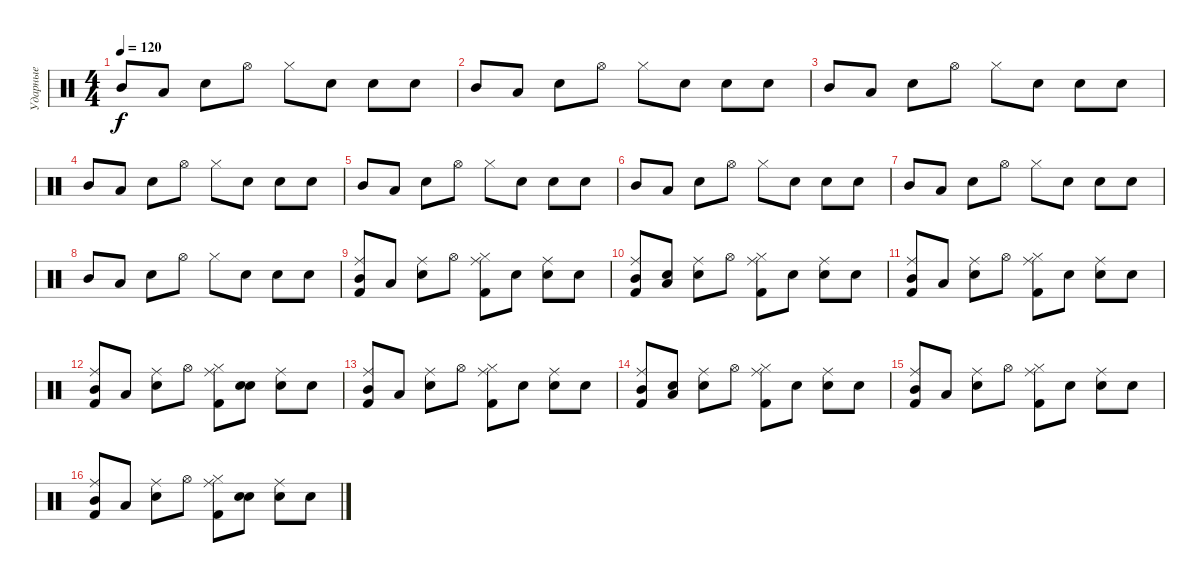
\track ("Ударные" "Ударные") {instrument percussion}
\staff {score}
\articulation defaults
\ts (4 4)
\tempo 120
\clef neutral
\ks c "Mid Tom (hit)".8{dy f} "Low Tom (hit)".8 "Electric Snare (hit)".8 "Hi-Hat (open)".8 "Hi-Hat (closed)".8 "Snare (hit)".8 "Electric Snare (hit)".8 "Snare (hit)".8
|
"Mid Tom (hit)".8 "Low Tom (hit)".8 "Electric Snare (hit)".8 "Hi-Hat (open)".8 "Hi-Hat (closed)".8 "Snare (hit)".8 "Electric Snare (hit)".8 "Snare (hit)".8 |
"Mid Tom (hit)".8 "Low Tom (hit)".8 "Electric Snare (hit)".8 "Hi-Hat (open)".8 "Hi-Hat (closed)".8 "Snare (hit)".8 "Electric Snare (hit)".8 "Snare (hit)".8 |
"Mid Tom (hit)".8 "Low Tom (hit)".8 "Electric Snare (hit)".8 "Hi-Hat (open)".8 "Hi-Hat (closed)".8 "Snare (hit)".8 "Electric Snare (hit)".8 "Snare (hit)".8 |
"Mid Tom (hit)".8 "Low Tom (hit)".8 "Electric Snare (hit)".8 "Hi-Hat (open)".8 "Hi-Hat (closed)".8 "Snare (hit)".8 "Electric Snare (hit)".8 "Snare (hit)".8 |
"Mid Tom (hit)".8 "Low Tom (hit)".8 "Electric Snare (hit)".8 "Hi-Hat (open)".8 "Hi-Hat (closed)".8 "Snare (hit)".8 "Electric Snare (hit)".8 "Snare (hit)".8 |
"Mid Tom (hit)".8 "Low Tom (hit)".8 "Electric Snare (hit)".8 "Hi-Hat (open)".8 "Hi-Hat (closed)".8 "Snare (hit)".8 "Electric Snare (hit)".8 "Snare (hit)".8 |
"Mid Tom (hit)".8 "Low Tom (hit)".8 "Electric Snare (hit)".8 "Hi-Hat (open)".8 "Hi-Hat (closed)".8 "Snare (hit)".8 "Electric Snare (hit)".8 "Snare (hit)".8 |
("Ride (middle)" "Mid Tom (hit)" "Kick (hit) 2").8 "Low Tom (hit)".8 ("Ride (middle)" "Electric Snare (hit)").8 "Hi-Hat (open)".8 ("Ride (middle)" "Hi-Hat (closed)" "Kick (hit) 2").8 "Snare (hit)".8 ("Ride (middle)" "Electric Snare (hit)").8 "Snare (hit)".8 |
("Ride (middle)" "Mid Tom (hit)" "Kick (hit) 2").8 ("Low Tom (hit)" "Snare (hit)").8 ("Ride (middle)" "Electric Snare (hit)").8 "Hi-Hat (open)".8 ("Ride (middle)" "Hi-Hat (closed)" "Kick (hit) 2").8 "Snare (hit)".8 ("Ride (middle)" "Electric Snare (hit)").8 "Snare (hit)".8 |
("Ride (middle)" "Mid Tom (hit)" "Kick (hit) 2").8 "Low Tom (hit)".8 ("Ride (middle)" "Electric Snare (hit)").8 "Hi-Hat (open)".8 ("Ride (middle)" "Hi-Hat (closed)" "Kick (hit) 2").8 "Snare (hit)".8 ("Ride (middle)" "Electric Snare (hit)").8 "Snare (hit)".8 |
("Ride (middle)" "Mid Tom (hit)" "Kick (hit) 2").8 "Low Tom (hit)".8 ("Ride (middle)" "Electric Snare (hit)").8 "Hi-Hat (open)".8 ("Ride (middle)" "Hi-Hat (closed)" "Kick (hit) 2").8 ("Snare (hit)" "Snare (hit)").8 ("Ride (middle)" "Electric Snare (hit)").8 "Snare (hit)".8 |
("Ride (middle)" "Mid Tom (hit)" "Kick (hit) 2").8 "Low Tom (hit)".8 ("Ride (middle)" "Electric Snare (hit)").8 "Hi-Hat (open)".8 ("Ride (middle)" "Hi-Hat (closed)" "Kick (hit) 2").8 "Snare (hit)".8 ("Ride (middle)" "Electric Snare (hit)").8 "Snare (hit)".8 |
("Ride (middle)" "Mid Tom (hit)" "Kick (hit) 2").8 ("Low Tom (hit)" "Snare (hit)").8 ("Ride (middle)" "Electric Snare (hit)").8 "Hi-Hat (open)".8 ("Ride (middle)" "Hi-Hat (closed)" "Kick (hit) 2").8 "Snare (hit)".8 ("Ride (middle)" "Electric Snare (hit)").8 "Snare (hit)".8 |
("Ride (middle)" "Mid Tom (hit)" "Kick (hit) 2").8 "Low Tom (hit)".8 ("Ride (middle)" "Electric Snare (hit)").8 "Hi-Hat (open)".8 ("Ride (middle)" "Hi-Hat (closed)" "Kick (hit) 2").8 "Snare (hit)".8 ("Ride (middle)" "Electric Snare (hit)").8 "Snare (hit)".8 |
("Ride (middle)" "Mid Tom (hit)" "Kick (hit) 2").8 "Low Tom (hit)".8 ("Ride (middle)" "Electric Snare (hit)").8 "Hi-Hat (open)".8 ("Ride (middle)" "Hi-Hat (closed)" "Kick (hit) 2").8 ("Snare (hit)" "Snare (hit)").8 ("Ride (middle)" "Electric Snare (hit)").8 "Snare (hit)".8
